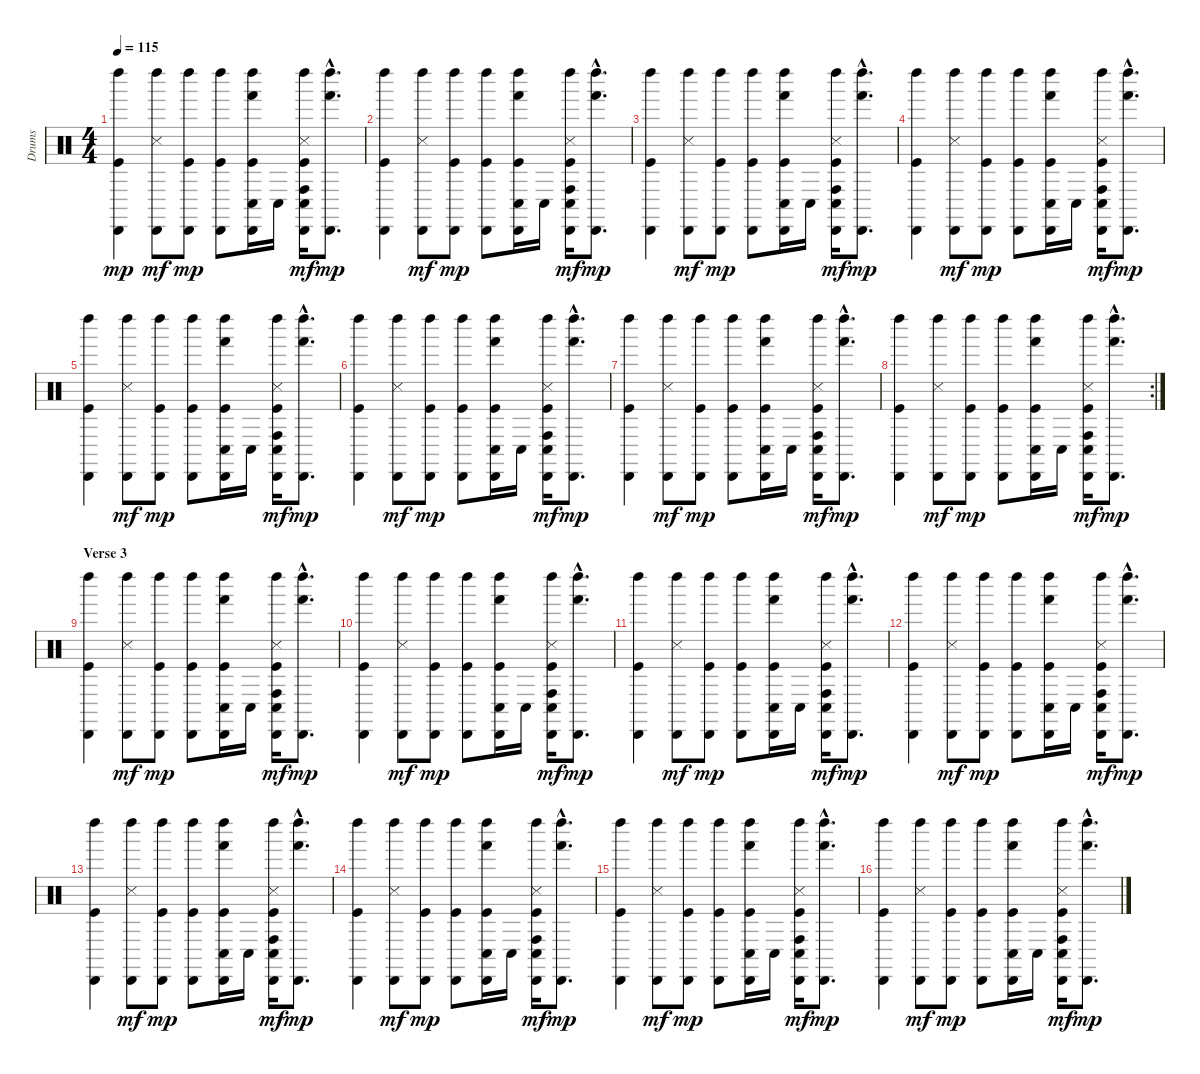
\track ("Drums" "Drums") {instrument percussion}
\staff {score}
\articulation defaults
\ts (4 4)
\tempo 115
\clef neutral
\ks c
("Left Maraca (hit)" "Cabasa (hit)" "Kick (hit)").4{dy mp} ("Left Maraca (hit)" "Cabasa (hit)" "Snare (side stick) 3").8{dy mf} ("Left Maraca (hit)" "Cabasa (hit)" "Kick (hit)").8{dy mp} ("Left Maraca (hit)" "Cabasa (hit)" "Kick (hit)").8 ("Left Maraca (hit)" "Cabasa (hit)" "Conga low (hit)" "Hand (hit)" "Kick (hit)").16 "Conga low (hit)".16 ("Left Maraca (hit)" "Cabasa (hit)" "Conga low (hit)" "Conga high (hit)" "Snare (side stick) 3" "Kick (hit)").16{dy mf} ("Left Maraca (hit)"{hac} "Cabasa (hit)"{hac} "Hand (hit)"{hac}).8{d dy mp} |
("Left Maraca (hit)" "Cabasa (hit)" "Kick (hit)").4 ("Left Maraca (hit)" "Cabasa (hit)" "Snare (side stick) 3").8{dy mf} ("Left Maraca (hit)" "Cabasa (hit)" "Kick (hit)").8{dy mp} ("Left Maraca (hit)" "Cabasa (hit)" "Kick (hit)").8 ("Left Maraca (hit)" "Cabasa (hit)" "Conga low (hit)" "Hand (hit)" "Kick (hit)").16 "Conga low (hit)".16 ("Left Maraca (hit)" "Cabasa (hit)" "Conga low (hit)" "Conga high (hit)" "Snare (side stick) 3" "Kick (hit)").16{dy mf} ("Left Maraca (hit)"{hac} "Cabasa (hit)"{hac} "Hand (hit)"{hac}).8{d dy mp} |
("Left Maraca (hit)" "Cabasa (hit)" "Kick (hit)").4 ("Left Maraca (hit)" "Cabasa (hit)" "Snare (side stick) 3").8{dy mf} ("Left Maraca (hit)" "Cabasa (hit)" "Kick (hit)").8{dy mp} ("Left Maraca (hit)" "Cabasa (hit)" "Kick (hit)").8 ("Left Maraca (hit)" "Cabasa (hit)" "Conga low (hit)" "Hand (hit)" "Kick (hit)").16 "Conga low (hit)".16 ("Left Maraca (hit)" "Cabasa (hit)" "Conga low (hit)" "Conga high (hit)" "Snare (side stick) 3" "Kick (hit)").16{dy mf} ("Left Maraca (hit)"{hac} "Cabasa (hit)"{hac} "Hand (hit)"{hac}).8{d dy mp} |
("Left Maraca (hit)" "Cabasa (hit)" "Kick (hit)").4 ("Left Maraca (hit)" "Cabasa (hit)" "Snare (side stick) 3").8{dy mf} ("Left Maraca (hit)" "Cabasa (hit)" "Kick (hit)").8{dy mp} ("Left Maraca (hit)" "Cabasa (hit)" "Kick (hit)").8 ("Left Maraca (hit)" "Cabasa (hit)" "Conga low (hit)" "Hand (hit)" "Kick (hit)").16 "Conga low (hit)".16 ("Left Maraca (hit)" "Cabasa (hit)" "Conga low (hit)" "Conga high (hit)" "Snare (side stick) 3" "Kick (hit)").16{dy mf} ("Left Maraca (hit)"{hac} "Cabasa (hit)"{hac} "Hand (hit)"{hac}).8{d dy mp} |
("Left Maraca (hit)" "Cabasa (hit)" "Kick (hit)").4 ("Left Maraca (hit)" "Cabasa (hit)" "Snare (side stick) 3").8{dy mf} ("Left Maraca (hit)" "Cabasa (hit)" "Kick (hit)").8{dy mp} ("Left Maraca (hit)" "Cabasa (hit)" "Kick (hit)").8 ("Left Maraca (hit)" "Cabasa (hit)" "Conga low (hit)" "Hand (hit)" "Kick (hit)").16 "Conga low (hit)".16 ("Left Maraca (hit)" "Cabasa (hit)" "Conga low (hit)" "Conga high (hit)" "Snare (side stick) 3" "Kick (hit)").16{dy mf} ("Left Maraca (hit)"{hac} "Cabasa (hit)"{hac} "Hand (hit)"{hac}).8{d dy mp} |
("Left Maraca (hit)" "Cabasa (hit)" "Kick (hit)").4 ("Left Maraca (hit)" "Cabasa (hit)" "Snare (side stick) 3").8{dy mf} ("Left Maraca (hit)" "Cabasa (hit)" "Kick (hit)").8{dy mp} ("Left Maraca (hit)" "Cabasa (hit)" "Kick (hit)").8 ("Left Maraca (hit)" "Cabasa (hit)" "Conga low (hit)" "Hand (hit)" "Kick (hit)").16 "Conga low (hit)".16 ("Left Maraca (hit)" "Cabasa (hit)" "Conga low (hit)" "Conga high (hit)" "Snare (side stick) 3" "Kick (hit)").16{dy mf} ("Left Maraca (hit)"{hac} "Cabasa (hit)"{hac} "Hand (hit)"{hac}).8{d dy mp} |
("Left Maraca (hit)" "Cabasa (hit)" "Kick (hit)").4 ("Left Maraca (hit)" "Cabasa (hit)" "Snare (side stick) 3").8{dy mf} ("Left Maraca (hit)" "Cabasa (hit)" "Kick (hit)").8{dy mp} ("Left Maraca (hit)" "Cabasa (hit)" "Kick (hit)").8 ("Left Maraca (hit)" "Cabasa (hit)" "Conga low (hit)" "Hand (hit)" "Kick (hit)").16 "Conga low (hit)".16 ("Left Maraca (hit)" "Cabasa (hit)" "Conga low (hit)" "Conga high (hit)" "Snare (side stick) 3" "Kick (hit)").16{dy mf} ("Left Maraca (hit)"{hac} "Cabasa (hit)"{hac} "Hand (hit)"{hac}).8{d dy mp} |
\rc 2
("Left Maraca (hit)" "Cabasa (hit)" "Kick (hit)").4 ("Left Maraca (hit)" "Cabasa (hit)" "Snare (side stick) 3").8{dy mf} ("Left Maraca (hit)" "Cabasa (hit)" "Kick (hit)").8{dy mp} ("Left Maraca (hit)" "Cabasa (hit)" "Kick (hit)").8 ("Left Maraca (hit)" "Cabasa (hit)" "Conga low (hit)" "Hand (hit)" "Kick (hit)").16 "Conga low (hit)".16 ("Left Maraca (hit)" "Cabasa (hit)" "Conga low (hit)" "Conga high (hit)" "Snare (side stick) 3" "Kick (hit)").16{dy mf} ("Left Maraca (hit)"{hac} "Cabasa (hit)"{hac} "Hand (hit)"{hac}).8{d dy mp} |
\section ("" "Verse 3")
("Left Maraca (hit)" "Cabasa (hit)" "Kick (hit)").4 ("Left Maraca (hit)" "Cabasa (hit)" "Snare (side stick) 3").8{dy mf} ("Left Maraca (hit)" "Cabasa (hit)" "Kick (hit)").8{dy mp} ("Left Maraca (hit)" "Cabasa (hit)" "Kick (hit)").8 ("Left Maraca (hit)" "Cabasa (hit)" "Conga low (hit)" "Hand (hit)" "Kick (hit)").16 "Conga low (hit)".16 ("Left Maraca (hit)" "Cabasa (hit)" "Conga low (hit)" "Conga high (hit)" "Snare (side stick) 3" "Kick (hit)").16{dy mf} ("Left Maraca (hit)"{hac} "Cabasa (hit)"{hac} "Hand (hit)"{hac}).8{d dy mp} |
("Left Maraca (hit)" "Cabasa (hit)" "Kick (hit)").4 ("Left Maraca (hit)" "Cabasa (hit)" "Snare (side stick) 3").8{dy mf} ("Left Maraca (hit)" "Cabasa (hit)" "Kick (hit)").8{dy mp} ("Left Maraca (hit)" "Cabasa (hit)" "Kick (hit)").8 ("Left Maraca (hit)" "Cabasa (hit)" "Conga low (hit)" "Hand (hit)" "Kick (hit)").16 "Conga low (hit)".16 ("Left Maraca (hit)" "Cabasa (hit)" "Conga low (hit)" "Conga high (hit)" "Snare (side stick) 3" "Kick (hit)").16{dy mf} ("Left Maraca (hit)"{hac} "Cabasa (hit)"{hac} "Hand (hit)"{hac}).8{d dy mp} |
("Left Maraca (hit)" "Cabasa (hit)" "Kick (hit)").4 ("Left Maraca (hit)" "Cabasa (hit)" "Snare (side stick) 3").8{dy mf} ("Left Maraca (hit)" "Cabasa (hit)" "Kick (hit)").8{dy mp} ("Left Maraca (hit)" "Cabasa (hit)" "Kick (hit)").8 ("Left Maraca (hit)" "Cabasa (hit)" "Conga low (hit)" "Hand (hit)" "Kick (hit)").16 "Conga low (hit)".16 ("Left Maraca (hit)" "Cabasa (hit)" "Conga low (hit)" "Conga high (hit)" "Snare (side stick) 3" "Kick (hit)").16{dy mf} ("Left Maraca (hit)"{hac} "Cabasa (hit)"{hac} "Hand (hit)"{hac}).8{d dy mp} |
("Left Maraca (hit)" "Cabasa (hit)" "Kick (hit)").4 ("Left Maraca (hit)" "Cabasa (hit)" "Snare (side stick) 3").8{dy mf} ("Left Maraca (hit)" "Cabasa (hit)" "Kick (hit)").8{dy mp} ("Left Maraca (hit)" "Cabasa (hit)" "Kick (hit)").8 ("Left Maraca (hit)" "Cabasa (hit)" "Conga low (hit)" "Hand (hit)" "Kick (hit)").16 "Conga low (hit)".16 ("Left Maraca (hit)" "Cabasa (hit)" "Conga low (hit)" "Conga high (hit)" "Snare (side stick) 3" "Kick (hit)").16{dy mf} ("Left Maraca (hit)"{hac} "Cabasa (hit)"{hac} "Hand (hit)"{hac}).8{d dy mp} |
("Left Maraca (hit)" "Cabasa (hit)" "Kick (hit)").4 ("Left Maraca (hit)" "Cabasa (hit)" "Snare (side stick) 3").8{dy mf} ("Left Maraca (hit)" "Cabasa (hit)" "Kick (hit)").8{dy mp} ("Left Maraca (hit)" "Cabasa (hit)" "Kick (hit)").8 ("Left Maraca (hit)" "Cabasa (hit)" "Conga low (hit)" "Hand (hit)" "Kick (hit)").16 "Conga low (hit)".16 ("Left Maraca (hit)" "Cabasa (hit)" "Conga low (hit)" "Conga high (hit)" "Snare (side stick) 3" "Kick (hit)").16{dy mf} ("Left Maraca (hit)"{hac} "Cabasa (hit)"{hac} "Hand (hit)"{hac}).8{d dy mp} |
("Left Maraca (hit)" "Cabasa (hit)" "Kick (hit)").4 ("Left Maraca (hit)" "Cabasa (hit)" "Snare (side stick) 3").8{dy mf} ("Left Maraca (hit)" "Cabasa (hit)" "Kick (hit)").8{dy mp} ("Left Maraca (hit)" "Cabasa (hit)" "Kick (hit)").8 ("Left Maraca (hit)" "Cabasa (hit)" "Conga low (hit)" "Hand (hit)" "Kick (hit)").16 "Conga low (hit)".16 ("Left Maraca (hit)" "Cabasa (hit)" "Conga low (hit)" "Conga high (hit)" "Snare (side stick) 3" "Kick (hit)").16{dy mf} ("Left Maraca (hit)"{hac} "Cabasa (hit)"{hac} "Hand (hit)"{hac}).8{d dy mp} |
("Left Maraca (hit)" "Cabasa (hit)" "Kick (hit)").4 ("Left Maraca (hit)" "Cabasa (hit)" "Snare (side stick) 3").8{dy mf} ("Left Maraca (hit)" "Cabasa (hit)" "Kick (hit)").8{dy mp} ("Left Maraca (hit)" "Cabasa (hit)" "Kick (hit)").8 ("Left Maraca (hit)" "Cabasa (hit)" "Conga low (hit)" "Hand (hit)" "Kick (hit)").16 "Conga low (hit)".16 ("Left Maraca (hit)" "Cabasa (hit)" "Conga low (hit)" "Conga high (hit)" "Snare (side stick) 3" "Kick (hit)").16{dy mf} ("Left Maraca (hit)"{hac} "Cabasa (hit)"{hac} "Hand (hit)"{hac}).8{d dy mp} |
("Left Maraca (hit)" "Cabasa (hit)" "Kick (hit)").4 ("Left Maraca (hit)" "Cabasa (hit)" "Snare (side stick) 3").8{dy mf} ("Left Maraca (hit)" "Cabasa (hit)" "Kick (hit)").8{dy mp} ("Left Maraca (hit)" "Cabasa (hit)" "Kick (hit)").8 ("Left Maraca (hit)" "Cabasa (hit)" "Conga low (hit)" "Hand (hit)" "Kick (hit)").16 "Conga low (hit)".16 ("Left Maraca (hit)" "Cabasa (hit)" "Conga low (hit)" "Conga high (hit)" "Snare (side stick) 3" "Kick (hit)").16{dy mf} ("Left Maraca (hit)"{hac} "Cabasa (hit)"{hac} "Hand (hit)"{hac}).8{d dy mp}
